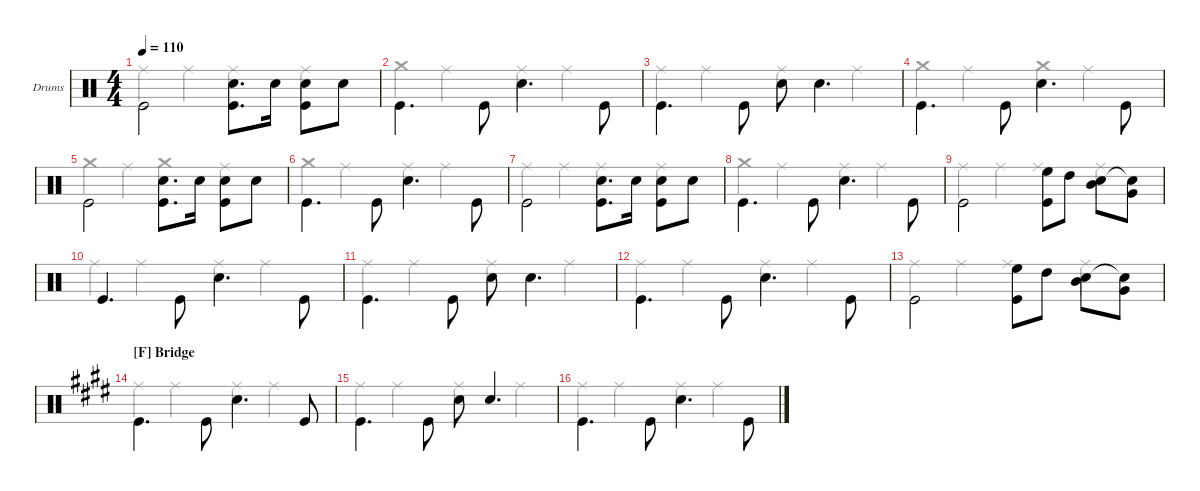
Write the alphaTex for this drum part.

\hideDynamics
\bracketExtendMode groupsimilarinstruments
\multiBarRest
\firstSystemTrackNameOrientation horizontal
\otherSystemsTrackNameOrientation horizontal
\track ("Drumkit" "Drums") {multiBarRest instrument percussion}
\staff {score}
\articulation defaults
\voice
\ts (4 4)
\tempo 110
\clef neutral
\ks c "Kick (hit)".2{dy f beam invert}
("Kick (hit)" "Snare (hit) 2").8{d beam invert} "Snare (hit) 2".16 ("Kick (hit)" "Snare (hit) 2").8{beam invert} "Snare (hit) 2".8 |
"Kick (hit)".4{d beam invert} "Kick (hit)".8{beam invert} "Snare (hit) 2".4{d beam invert} "Kick (hit)".8{beam invert} |
"Kick (hit)".4{d beam invert} "Kick (hit)".8{beam invert} "Snare (hit) 2".8{beam invert} "Snare (hit) 2".4{d beam invert} |
"Kick (hit)".4{d beam invert} "Kick (hit)".8{beam invert} "Snare (hit) 2".4{d beam invert} "Kick (hit)".8{beam invert} |
"Kick (hit)".2{beam invert} ("Kick (hit)" "Snare (hit) 2").8{d} "Snare (hit) 2".16{beam invert} ("Kick (hit)" "Snare (hit) 2").8 "Snare (hit) 2".8{beam invert} |
"Kick (hit)".4{d} "Kick (hit)".8{beam invert} "Snare (hit) 2".4{d beam invert} "Kick (hit)".8{beam invert} |
"Kick (hit)".2{beam invert} ("Kick (hit)" "Snare (hit) 2").8{d beam invert} "Snare (hit) 2".16 ("Kick (hit)" "Snare (hit) 2").8{beam invert} "Snare (hit) 2".8 |
"Kick (hit)".4{d beam invert} "Kick (hit)".8{beam invert} "Snare (hit) 2".4{d beam invert} "Kick (hit)".8{beam invert} |
"Kick (hit)".2 ("High Floor Tom (hit)" "Kick (hit)").8{beam invert} "High Tom (hit)".8 ("Mid Tom (hit)" "Snare (hit) 2").8{beam invert} ("Very Low Tom (hit)" "Snare (hit) 2"{t}).8 |
"Kick (hit)".4{d} "Kick (hit)".8 "Snare (hit) 2".4{d beam invert} "Kick (hit)".8{beam invert} |
"Kick (hit)".4{d beam invert} "Kick (hit)".8{beam invert} "Snare (hit) 2".8{beam invert} "Snare (hit) 2".4{d beam invert} |
"Kick (hit)".4{d} "Kick (hit)".8{beam invert} "Snare (hit) 2".4{d} "Kick (hit)".8{beam invert} |
"Kick (hit)".2 ("High Floor Tom (hit)" "Kick (hit)").8{beam invert} "High Tom (hit)".8 ("Mid Tom (hit)" "Snare (hit) 2").8{beam invert} ("Very Low Tom (hit)" "Snare (hit) 2"{t}).8 |
\section ("F" "Bridge")
\ks e "Kick (hit)".4{d beam invert} "Kick (hit)".8{beam invert} "Snare (hit) 2".4{d beam invert} "Kick (hit)".8
|
"Kick (hit)".4{d beam invert} "Kick (hit)".8 "Snare (hit) 2".8{beam invert} "Snare (hit) 2".4{d} |
"Kick (hit)".4{d beam invert} "Kick (hit)".8{beam invert} "Snare (hit) 2".4{d} "Kick (hit)".8{beam invert}
\voice
\clef neutral
\ottava regular
\simile none
\ks c
|
|
|
|
|
|
|
|
|
|
|
|
|
\ks e
|
|
\voice
\clef neutral
\ottava regular
\simile none
\ks c
|
|
|
|
|
|
|
|
|
|
|
|
|
\ks e
|
|
\voice
\clef neutral
\ottava regular
\simile none
\ks c "Ride (middle)".4{dy f} "Ride (middle)".4 "Ride (middle)".4 "Ride (middle)".4
|
"Crash medium (hit)".4 "Ride (middle)".4 "Ride (middle)".4 "Ride (middle)".4 |
"Ride (middle)".4 "Ride (middle)".4 "Ride (middle)".4 "Ride (middle)".4 |
"Crash medium (hit)".4 "Ride (middle)".4 "Crash medium (hit)".4 "Ride (middle)".4 |
"Crash medium (hit)".4 "Ride (middle)".4 "Crash medium (hit)".4 "Ride (middle)".4 |
"Crash medium (hit)".4 "Ride (middle)".4 "Ride (middle)".4 "Ride (middle)".4 |
"Ride (middle)".4 "Ride (middle)".4 "Ride (middle)".4 "Ride (middle)".4 |
"Crash medium (hit)".4 "Ride (middle)".4 "Ride (middle)".4 "Ride (middle)".4 |
"Ride (middle)".4 "Ride (middle)".4 "Ride (middle)".4 "Ride (middle)".4 |
"Ride (middle)".4 "Ride (middle)".4 "Ride (middle)".4 "Ride (middle)".4 |
"Ride (middle)".4 "Ride (middle)".4 "Ride (middle)".4 "Ride (middle)".4 |
"Ride (middle)".4 "Ride (middle)".4 "Ride (middle)".4 "Ride (middle)".4 |
"Ride (middle)".4 "Ride (middle)".4 "Ride (middle)".4 "Ride (middle)".4 |
\ks e "Ride (middle)".4 "Ride (middle)".4 "Ride (middle)".4 "Ride (middle)".4
|
"Ride (middle)".4 "Ride (middle)".4 "Ride (middle)".4 "Ride (middle)".4 |
"Ride (middle)".4 "Ride (middle)".4 "Ride (middle)".4 "Ride (middle)".4
